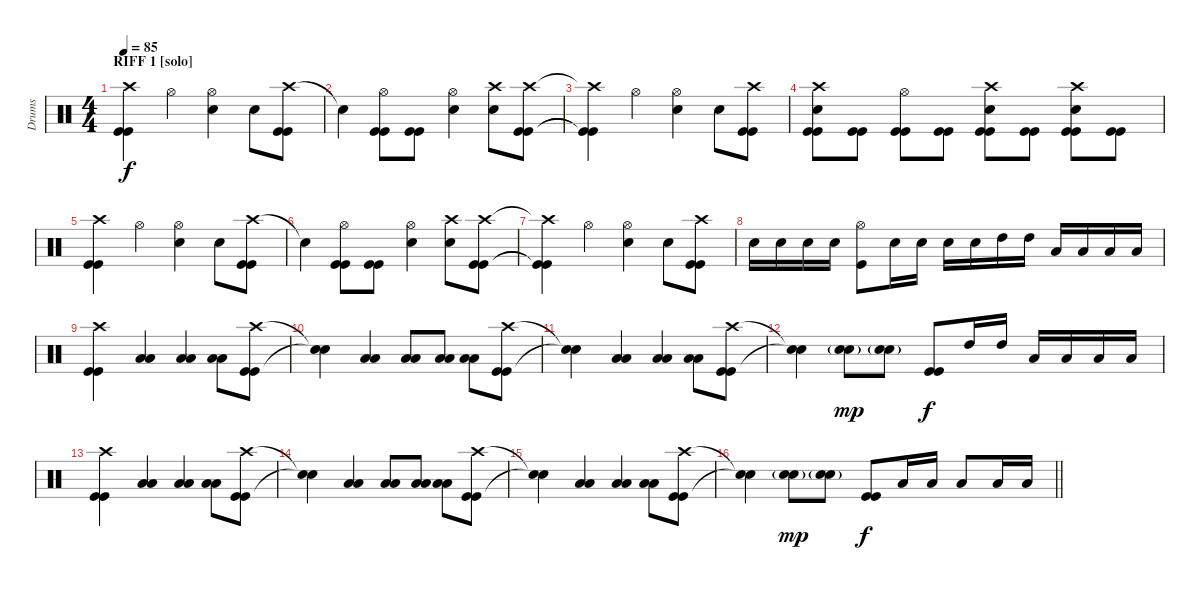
\track ("Drums" "Drums") {instrument percussion}
\staff {score}
\articulation defaults
\ts (4 4)
\section ("" "RIFF 1 [solo]")
\tempo 85
\clef neutral
\ks c
("Crash high (hit)" "Kick (hit)" "Kick (hit)").4{dy f} "Hi-Hat (open)".4 ("Hi-Hat (open)" "Snare (hit) 2").4 "Snare (hit) 2".8 ("Crash high (hit)" "Kick (hit)" "Kick (hit)").8 |
"Snare (hit)"{t}.4 ("Hi-Hat (open)" "Kick (hit)" "Kick (hit)").8 ("Kick (hit)" "Kick (hit)").8 ("Hi-Hat (open)" "Snare (hit) 2").4 ("Crash high (hit)" "Snare (hit) 2").8 ("Crash high (hit)" "Kick (hit)" "Kick (hit)").8 |
("Crash high (hit)"{t} "Kick (hit)"{t} "Kick (hit)"{t}).4 "Hi-Hat (open)".4 ("Hi-Hat (open)" "Snare (hit) 2").4 "Snare (hit) 2".8 ("Crash high (hit)" "Kick (hit)" "Kick (hit)").8 |
("Crash high (hit)" "Snare (hit) 2" "Kick (hit)" "Kick (hit)").8 ("Kick (hit)" "Kick (hit)").8 ("Hi-Hat (open)" "Kick (hit)" "Kick (hit)").8 ("Kick (hit)" "Kick (hit)").8 ("Crash high (hit)" "Snare (hit) 2" "Kick (hit)" "Kick (hit)").8 ("Kick (hit)" "Kick (hit)").8 ("Crash high (hit)" "Snare (hit) 2" "Kick (hit)" "Kick (hit)").8 ("Kick (hit)" "Kick (hit)").8 |
("Crash high (hit)" "Kick (hit)" "Kick (hit)").4 "Hi-Hat (open)".4 ("Hi-Hat (open)" "Snare (hit) 2").4 "Snare (hit) 2".8 ("Crash high (hit)" "Kick (hit)" "Kick (hit)").8 |
"Snare (hit)"{t}.4 ("Hi-Hat (open)" "Kick (hit)" "Kick (hit)").8 ("Kick (hit)" "Kick (hit)").8 ("Hi-Hat (open)" "Snare (hit) 2").4 ("Crash high (hit)" "Snare (hit) 2").8 ("Crash high (hit)" "Kick (hit)" "Kick (hit)").8 |
("Crash high (hit)"{t} "Kick (hit)"{t} "Kick (hit)"{t}).4 "Hi-Hat (open)".4 ("Hi-Hat (open)" "Snare (hit) 2").4 "Snare (hit) 2".8 ("Crash high (hit)" "Kick (hit)" "Kick (hit)").8 |
"Snare (hit) 2".16 "Snare (hit) 2".16 "Snare (hit) 2".16 "Snare (hit) 2".16 ("Hi-Hat (open)" "Kick (hit)").8 "Snare (hit) 2".16 "Snare (hit) 2".16 "Snare (hit) 2".16 "Snare (hit) 2".16 "High Tom (hit)".16 "High Tom (hit)".16 "Low Tom (hit)".16 "Low Tom (hit)".16 "Low Floor Tom (hit)".16 "Low Floor Tom (hit)".16 |
("Crash high (hit)" "Kick (hit)" "Kick (hit)").4 ("Low Floor Tom (hit)" "Low Tom (hit)").4 ("Low Floor Tom (hit)" "Low Tom (hit)").4 ("Low Tom (hit)" "Low Floor Tom (hit)").8 ("Crash high (hit)" "Kick (hit)" "Kick (hit)").8 |
("Snare (hit)"{t} "Snare (hit)"{t}).4 ("Low Floor Tom (hit)" "Low Tom (hit)").4 ("Low Floor Tom (hit)" "Low Tom (hit)").8 ("Low Floor Tom (hit)" "Low Tom (hit)").8 ("Low Floor Tom (hit)" "Low Tom (hit)").8 ("Crash high (hit)" "Kick (hit)" "Kick (hit)").8 |
("Snare (hit)"{t} "Snare (hit)"{t}).4 ("Low Floor Tom (hit)" "Low Tom (hit)").4 ("Low Floor Tom (hit)" "Low Tom (hit)").4 ("Low Floor Tom (hit)" "Low Tom (hit)").8 ("Crash high (hit)" "Kick (hit)" "Kick (hit)").8 |
("Snare (hit)"{t} "Snare (hit)"{t}).4 ("Snare (hit) 2"{g} "Snare (hit) 2").8{dy mp} ("Snare (hit) 2"{g} "Snare (hit) 2").8 ("Kick (hit)" "Kick (hit)").8{dy f} "High Tom (hit)".16 "High Tom (hit)".16 "Low Tom (hit)".16 "Low Tom (hit)".16 "Low Floor Tom (hit)".16 "Low Floor Tom (hit)".16 |
("Crash high (hit)" "Kick (hit)" "Kick (hit)").4 ("Low Floor Tom (hit)" "Low Tom (hit)").4 ("Low Floor Tom (hit)" "Low Tom (hit)").4 ("Low Tom (hit)" "Low Floor Tom (hit)").8 ("Crash high (hit)" "Kick (hit)" "Kick (hit)").8 |
("Snare (hit)"{t} "Snare (hit)"{t}).4 ("Low Floor Tom (hit)" "Low Tom (hit)").4 ("Low Floor Tom (hit)" "Low Tom (hit)").8 ("Low Floor Tom (hit)" "Low Tom (hit)").8 ("Low Floor Tom (hit)" "Low Tom (hit)").8 ("Crash high (hit)" "Kick (hit)" "Kick (hit)").8 |
("Snare (hit)"{t} "Snare (hit)"{t}).4 ("Low Floor Tom (hit)" "Low Tom (hit)").4 ("Low Floor Tom (hit)" "Low Tom (hit)").4 ("Low Floor Tom (hit)" "Low Tom (hit)").8 ("Crash high (hit)" "Kick (hit)" "Kick (hit)").8 |
\barLineRight lightlight
("Snare (hit)"{t} "Snare (hit)"{t}).4 ("Snare (hit) 2"{g} "Snare (hit) 2").8{dy mp} ("Snare (hit) 2"{g} "Snare (hit) 2").8 ("Kick (hit)" "Kick (hit)").8{dy f} "Low Tom (hit)".16 "Low Tom (hit)".16 "Low Tom (hit)".8 "Low Floor Tom (hit)".16 "Low Floor Tom (hit)".16
